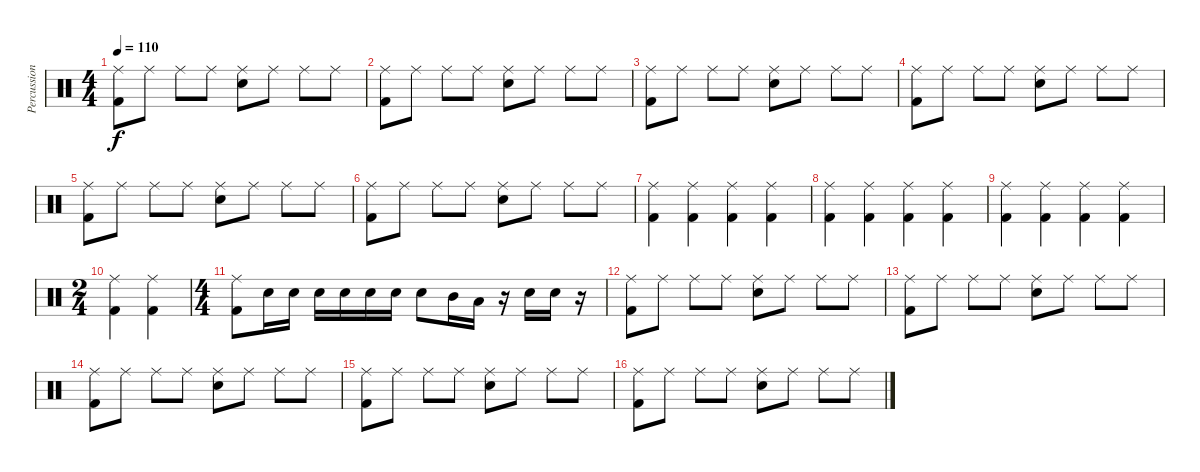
\track ("Percussion" "Percussion") {instrument percussion}
\staff {score}
\articulation defaults
\ts (4 4)
\tempo 110
\clef neutral
\ks c
("Ride (middle)" "Kick (hit) 2").8{dy f} "Ride (middle)".8 "Ride (middle)".8 "Ride (middle)".8 ("Ride (middle)" "Snare (hit) 2").8 "Ride (middle)".8 "Ride (middle)".8 "Ride (middle)".8 |
("Ride (middle)" "Kick (hit) 2").8 "Ride (middle)".8 "Ride (middle)".8 "Ride (middle)".8 ("Ride (middle)" "Snare (hit) 2").8 "Ride (middle)".8 "Ride (middle)".8 "Ride (middle)".8 |
("Ride (middle)" "Kick (hit) 2").8 "Ride (middle)".8 "Ride (middle)".8 "Ride (middle)".8 ("Ride (middle)" "Snare (hit) 2").8 "Ride (middle)".8 "Ride (middle)".8 "Ride (middle)".8 |
("Ride (middle)" "Kick (hit) 2").8 "Ride (middle)".8 "Ride (middle)".8 "Ride (middle)".8 ("Ride (middle)" "Snare (hit) 2").8 "Ride (middle)".8 "Ride (middle)".8 "Ride (middle)".8 |
("Ride (middle)" "Kick (hit) 2").8 "Ride (middle)".8 "Ride (middle)".8 "Ride (middle)".8 ("Ride (middle)" "Snare (hit) 2").8 "Ride (middle)".8 "Ride (middle)".8 "Ride (middle)".8 |
("Ride (middle)" "Kick (hit) 2").8 "Ride (middle)".8 "Ride (middle)".8 "Ride (middle)".8 ("Ride (middle)" "Snare (hit) 2").8 "Ride (middle)".8 "Ride (middle)".8 "Ride (middle)".8 |
("Ride (middle)" "Kick (hit) 2").4 ("Ride (middle)" "Kick (hit) 2").4 ("Ride (middle)" "Kick (hit) 2").4 ("Ride (middle)" "Kick (hit) 2").4 |
("Ride (middle)" "Kick (hit) 2").4 ("Ride (middle)" "Kick (hit) 2").4 ("Ride (middle)" "Kick (hit) 2").4 ("Ride (middle)" "Kick (hit) 2").4 |
("Ride (middle)" "Kick (hit) 2").4 ("Ride (middle)" "Kick (hit) 2").4 ("Ride (middle)" "Kick (hit) 2").4 ("Ride (middle)" "Kick (hit) 2").4 |
\ts (2 4)
("Ride (middle)" "Kick (hit) 2").4 ("Ride (middle)" "Kick (hit) 2").4 |
\ts (4 4)
("Ride (middle)" "Kick (hit) 2").8 "Snare (hit) 2".16 "Snare (hit) 2".16 "Snare (hit) 2".16 "Snare (hit) 2".16 "Snare (hit) 2".16 "Snare (hit) 2".16 "Snare (hit) 2".8 "Mid Tom (hit)".16 "Low Floor Tom (hit)".16 r.16 "Snare (hit) 2".16 "Snare (hit) 2".16 r.16 |
("Ride (middle)" "Kick (hit) 2").8 "Ride (middle)".8 "Ride (middle)".8 "Ride (middle)".8 ("Ride (middle)" "Snare (hit) 2").8 "Ride (middle)".8 "Ride (middle)".8 "Ride (middle)".8 |
("Ride (middle)" "Kick (hit) 2").8 "Ride (middle)".8 "Ride (middle)".8 "Ride (middle)".8 ("Ride (middle)" "Snare (hit) 2").8 "Ride (middle)".8 "Ride (middle)".8 "Ride (middle)".8 |
("Ride (middle)" "Kick (hit) 2").8 "Ride (middle)".8 "Ride (middle)".8 "Ride (middle)".8 ("Ride (middle)" "Snare (hit) 2").8 "Ride (middle)".8 "Ride (middle)".8 "Ride (middle)".8 |
("Ride (middle)" "Kick (hit) 2").8 "Ride (middle)".8 "Ride (middle)".8 "Ride (middle)".8 ("Ride (middle)" "Snare (hit) 2").8 "Ride (middle)".8 "Ride (middle)".8 "Ride (middle)".8 |
("Ride (middle)" "Kick (hit) 2").8 "Ride (middle)".8 "Ride (middle)".8 "Ride (middle)".8 ("Ride (middle)" "Snare (hit) 2").8 "Ride (middle)".8 "Ride (middle)".8 "Ride (middle)".8
